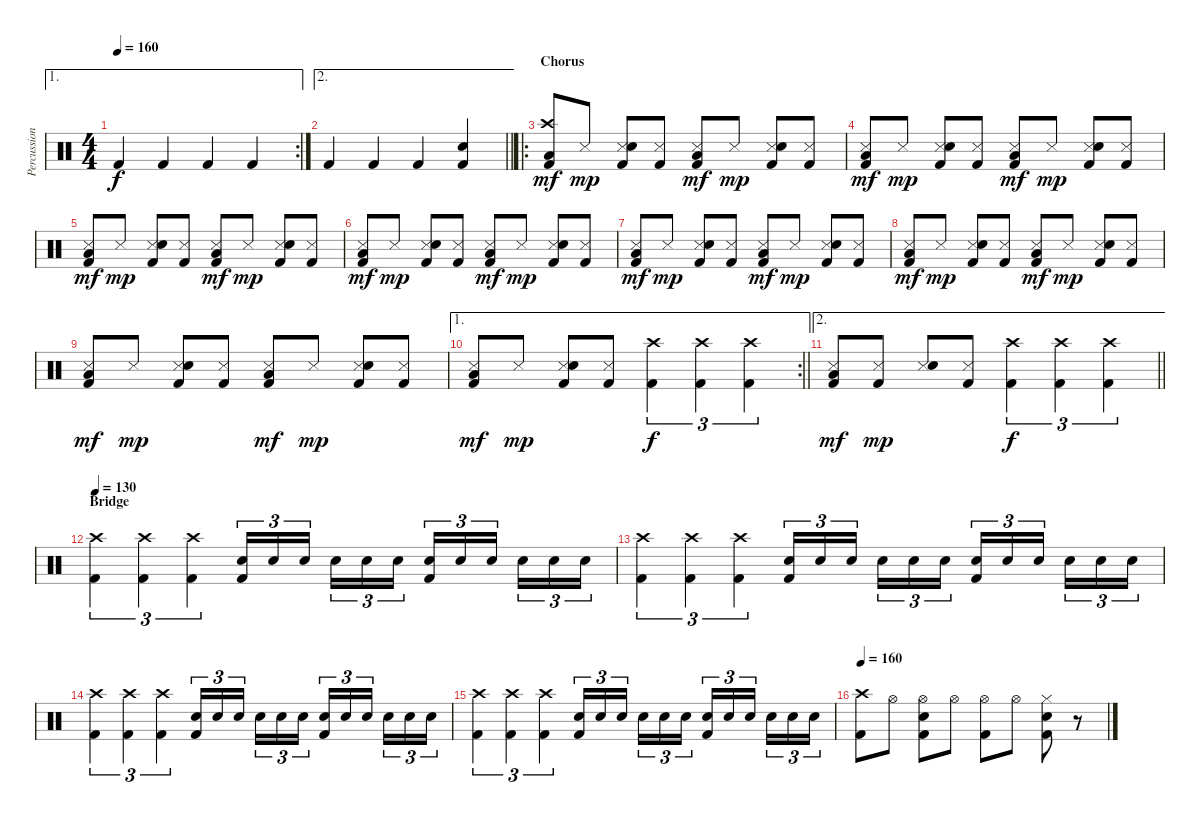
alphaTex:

\track ("Percussion" "Percussion") {instrument percussion}
\staff {score}
\articulation defaults
\ae 1
\rc 2
\ts (4 4)
\tempo 160
\clef neutral
\ks c "Kick (hit) 2".4{dy f} "Kick (hit) 2".4 "Kick (hit) 2".4 "Kick (hit) 2".4
|
\ae 2
\barLineRight lightlight "Kick (hit) 2".4 "Kick (hit) 2".4 "Kick (hit) 2".4
("Electric Snare (hit)" "Kick (hit) 2").4 |
\ro
\section ("" "Chorus")
("Crash high (hit)" "Low Tom (hit)" "Kick (hit) 2").8{dy mf} "Snare (side stick) 3".8{dy mp} ("Snare (side stick) 3" "Electric Snare (hit)" "Kick (hit) 2").8 ("Snare (side stick) 3" "Kick (hit) 2").8 ("Snare (side stick) 3" "Low Tom (hit)" "Kick (hit) 2").8{dy mf} "Snare (side stick) 3".8{dy mp} ("Snare (side stick) 3" "Electric Snare (hit)" "Kick (hit) 2").8 ("Snare (side stick) 3" "Kick (hit) 2").8 |
("Snare (side stick) 3" "Low Tom (hit)" "Kick (hit) 2").8{dy mf} "Snare (side stick) 3".8{dy mp} ("Snare (side stick) 3" "Electric Snare (hit)" "Kick (hit) 2").8 ("Snare (side stick) 3" "Kick (hit) 2").8 ("Snare (side stick) 3" "Low Tom (hit)" "Kick (hit) 2").8{dy mf} "Snare (side stick) 3".8{dy mp} ("Snare (side stick) 3" "Electric Snare (hit)" "Kick (hit) 2").8 ("Snare (side stick) 3" "Kick (hit) 2").8 |
("Snare (side stick) 3" "Low Tom (hit)" "Kick (hit) 2").8{dy mf} "Snare (side stick) 3".8{dy mp} ("Snare (side stick) 3" "Electric Snare (hit)" "Kick (hit) 2").8 ("Snare (side stick) 3" "Kick (hit) 2").8 ("Snare (side stick) 3" "Low Tom (hit)" "Kick (hit) 2").8{dy mf} "Snare (side stick) 3".8{dy mp} ("Snare (side stick) 3" "Electric Snare (hit)" "Kick (hit) 2").8 ("Snare (side stick) 3" "Kick (hit) 2").8 |
("Snare (side stick) 3" "Low Tom (hit)" "Kick (hit) 2").8{dy mf} "Snare (side stick) 3".8{dy mp} ("Snare (side stick) 3" "Electric Snare (hit)" "Kick (hit) 2").8 ("Snare (side stick) 3" "Kick (hit) 2").8 ("Snare (side stick) 3" "Low Tom (hit)" "Kick (hit) 2").8{dy mf} "Snare (side stick) 3".8{dy mp} ("Snare (side stick) 3" "Electric Snare (hit)" "Kick (hit) 2").8 ("Snare (side stick) 3" "Kick (hit) 2").8 |
("Snare (side stick) 3" "Low Tom (hit)" "Kick (hit) 2").8{dy mf} "Snare (side stick) 3".8{dy mp} ("Snare (side stick) 3" "Electric Snare (hit)" "Kick (hit) 2").8 ("Snare (side stick) 3" "Kick (hit) 2").8 ("Snare (side stick) 3" "Low Tom (hit)" "Kick (hit) 2").8{dy mf} "Snare (side stick) 3".8{dy mp} ("Snare (side stick) 3" "Electric Snare (hit)" "Kick (hit) 2").8 ("Snare (side stick) 3" "Kick (hit) 2").8 |
("Snare (side stick) 3" "Low Tom (hit)" "Kick (hit) 2").8{dy mf} "Snare (side stick) 3".8{dy mp} ("Snare (side stick) 3" "Electric Snare (hit)" "Kick (hit) 2").8 ("Snare (side stick) 3" "Kick (hit) 2").8 ("Snare (side stick) 3" "Low Tom (hit)" "Kick (hit) 2").8{dy mf} "Snare (side stick) 3".8{dy mp} ("Snare (side stick) 3" "Electric Snare (hit)" "Kick (hit) 2").8 ("Snare (side stick) 3" "Kick (hit) 2").8 |
("Snare (side stick) 3" "Low Tom (hit)" "Kick (hit) 2").8{dy mf} "Snare (side stick) 3".8{dy mp} ("Snare (side stick) 3" "Electric Snare (hit)" "Kick (hit) 2").8 ("Snare (side stick) 3" "Kick (hit) 2").8 ("Snare (side stick) 3" "Low Tom (hit)" "Kick (hit) 2").8{dy mf} "Snare (side stick) 3".8{dy mp} ("Snare (side stick) 3" "Electric Snare (hit)" "Kick (hit) 2").8 ("Snare (side stick) 3" "Kick (hit) 2").8 |
\ae 1
\rc 2
\barLineRight lightlight
("Snare (side stick) 3" "Low Tom (hit)" "Kick (hit) 2").8{dy mf} "Snare (side stick) 3".8{dy mp} ("Snare (side stick) 3" "Electric Snare (hit)" "Kick (hit) 2").8 ("Snare (side stick) 3" "Kick (hit) 2").8 ("Crash high (hit)" "Kick (hit) 2").4{tu (3 2) dy f} ("Crash high (hit)" "Kick (hit) 2").4{tu (3 2)} ("Crash high (hit)" "Kick (hit) 2").4{tu (3 2)} |
\ae 2
\barLineRight lightlight
("Snare (side stick) 3" "Low Tom (hit)" "Kick (hit) 2").8{dy mf} ("Snare (side stick) 3" "Kick (hit) 2").8{dy mp} ("Snare (side stick) 3" "Electric Snare (hit)").8 ("Snare (side stick) 3" "Kick (hit) 2").8 ("Crash high (hit)" "Kick (hit) 2").4{tu (3 2) dy f} ("Crash high (hit)" "Kick (hit) 2").4{tu (3 2)} ("Crash high (hit)" "Kick (hit) 2").4{tu (3 2)} |
\section ("" "Bridge")
\tempo 130
("Crash high (hit)" "Kick (hit) 2").4{tu (3 2)} ("Crash high (hit)" "Kick (hit) 2").4{tu (3 2)} ("Crash high (hit)" "Kick (hit) 2").4{tu (3 2)} ("Electric Snare (hit)" "Kick (hit) 2").16{tu (3 2)} "Electric Snare (hit)".16{tu (3 2)} "Electric Snare (hit)".16{tu (3 2) beam splitsecondary} "Electric Snare (hit)".16{tu (3 2)} "Electric Snare (hit)".16{tu (3 2)} "Electric Snare (hit)".16{tu (3 2)} ("Electric Snare (hit)" "Kick (hit) 2").16{tu (3 2)} "Electric Snare (hit)".16{tu (3 2)} "Electric Snare (hit)".16{tu (3 2) beam splitsecondary} "Electric Snare (hit)".16{tu (3 2)} "Electric Snare (hit)".16{tu (3 2)} "Electric Snare (hit)".16{tu (3 2)} |
("Crash high (hit)" "Kick (hit) 2").4{tu (3 2)} ("Crash high (hit)" "Kick (hit) 2").4{tu (3 2)} ("Crash high (hit)" "Kick (hit) 2").4{tu (3 2)} ("Electric Snare (hit)" "Kick (hit) 2").16{tu (3 2)} "Electric Snare (hit)".16{tu (3 2)} "Electric Snare (hit)".16{tu (3 2) beam splitsecondary} "Electric Snare (hit)".16{tu (3 2)} "Electric Snare (hit)".16{tu (3 2)} "Electric Snare (hit)".16{tu (3 2)} ("Electric Snare (hit)" "Kick (hit) 2").16{tu (3 2)} "Electric Snare (hit)".16{tu (3 2)} "Electric Snare (hit)".16{tu (3 2) beam splitsecondary} "Electric Snare (hit)".16{tu (3 2)} "Electric Snare (hit)".16{tu (3 2)} "Electric Snare (hit)".16{tu (3 2)} |
("Crash high (hit)" "Kick (hit) 2").4{tu (3 2)} ("Crash high (hit)" "Kick (hit) 2").4{tu (3 2)} ("Crash high (hit)" "Kick (hit) 2").4{tu (3 2)} ("Electric Snare (hit)" "Kick (hit) 2").16{tu (3 2)} "Electric Snare (hit)".16{tu (3 2)} "Electric Snare (hit)".16{tu (3 2) beam splitsecondary} "Electric Snare (hit)".16{tu (3 2)} "Electric Snare (hit)".16{tu (3 2)} "Electric Snare (hit)".16{tu (3 2)} ("Electric Snare (hit)" "Kick (hit) 2").16{tu (3 2)} "Electric Snare (hit)".16{tu (3 2)} "Electric Snare (hit)".16{tu (3 2) beam splitsecondary} "Electric Snare (hit)".16{tu (3 2)} "Electric Snare (hit)".16{tu (3 2)} "Electric Snare (hit)".16{tu (3 2)} |
("Crash high (hit)" "Kick (hit) 2").4{tu (3 2)} ("Crash high (hit)" "Kick (hit) 2").4{tu (3 2)} ("Crash high (hit)" "Kick (hit) 2").4{tu (3 2)} ("Electric Snare (hit)" "Kick (hit) 2").16{tu (3 2)} "Electric Snare (hit)".16{tu (3 2)} "Electric Snare (hit)".16{tu (3 2) beam splitsecondary} "Electric Snare (hit)".16{tu (3 2)} "Electric Snare (hit)".16{tu (3 2)} "Electric Snare (hit)".16{tu (3 2)} ("Electric Snare (hit)" "Kick (hit) 2").16{tu (3 2)} "Electric Snare (hit)".16{tu (3 2)} "Electric Snare (hit)".16{tu (3 2) beam splitsecondary} "Electric Snare (hit)".16{tu (3 2)} "Electric Snare (hit)".16{tu (3 2)} "Electric Snare (hit)".16{tu (3 2)} |
\tempo 160
("Crash high (hit)" "Kick (hit) 2").8 "Hi-Hat (open)".8 ("Hi-Hat (open)" "Electric Snare (hit)" "Kick (hit) 2").8 "Hi-Hat (open)".8 ("Hi-Hat (open)" "Kick (hit) 2").8 "Hi-Hat (open)".8 ("Hi-Hat (closed)" "Electric Snare (hit)" "Kick (hit) 2").8 r.8
